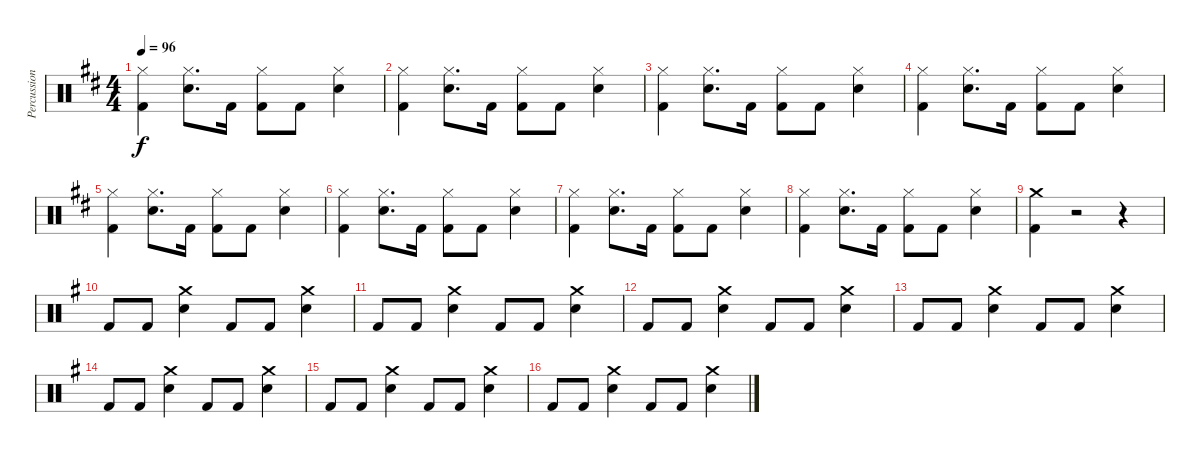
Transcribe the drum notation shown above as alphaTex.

\track ("Percussion" "Percussion") {instrument percussion}
\staff {score}
\articulation defaults
\ts (4 4)
\tempo 96
\clef neutral
\ks d
("Hi-Hat (closed)" "Kick (hit) 2").4{dy f} ("Hi-Hat (closed)" "Snare (hit) 2").8{d} "Kick (hit) 2".16 ("Hi-Hat (closed)" "Kick (hit) 2").8 "Kick (hit) 2".8 ("Hi-Hat (closed)" "Snare (hit) 2").4 |
("Hi-Hat (closed)" "Kick (hit) 2").4 ("Hi-Hat (closed)" "Snare (hit) 2").8{d} "Kick (hit) 2".16 ("Hi-Hat (closed)" "Kick (hit) 2").8 "Kick (hit) 2".8 ("Hi-Hat (closed)" "Snare (hit) 2").4 |
("Hi-Hat (closed)" "Kick (hit) 2").4 ("Hi-Hat (closed)" "Snare (hit) 2").8{d} "Kick (hit) 2".16 ("Hi-Hat (closed)" "Kick (hit) 2").8 "Kick (hit) 2".8 ("Hi-Hat (closed)" "Snare (hit) 2").4 |
("Hi-Hat (closed)" "Kick (hit) 2").4 ("Hi-Hat (closed)" "Snare (hit) 2").8{d} "Kick (hit) 2".16 ("Hi-Hat (closed)" "Kick (hit) 2").8 "Kick (hit) 2".8 ("Hi-Hat (closed)" "Snare (hit) 2").4 |
("Hi-Hat (closed)" "Kick (hit) 2").4 ("Hi-Hat (closed)" "Snare (hit) 2").8{d} "Kick (hit) 2".16 ("Hi-Hat (closed)" "Kick (hit) 2").8 "Kick (hit) 2".8 ("Hi-Hat (closed)" "Snare (hit) 2").4 |
("Hi-Hat (closed)" "Kick (hit) 2").4 ("Hi-Hat (closed)" "Snare (hit) 2").8{d} "Kick (hit) 2".16 ("Hi-Hat (closed)" "Kick (hit) 2").8 "Kick (hit) 2".8 ("Hi-Hat (closed)" "Snare (hit) 2").4 |
("Hi-Hat (closed)" "Kick (hit) 2").4 ("Hi-Hat (closed)" "Snare (hit) 2").8{d} "Kick (hit) 2".16 ("Hi-Hat (closed)" "Kick (hit) 2").8 "Kick (hit) 2".8 ("Hi-Hat (closed)" "Snare (hit) 2").4 |
("Hi-Hat (closed)" "Kick (hit) 2").4 ("Hi-Hat (closed)" "Snare (hit) 2").8{d} "Kick (hit) 2".16 ("Hi-Hat (closed)" "Kick (hit) 2").8 "Kick (hit) 2".8 ("Hi-Hat (closed)" "Snare (hit) 2").4 |
("Crash medium (hit)" "Kick (hit) 2").4 r.2 r.4 |
\ks g "Kick (hit) 2".8 "Kick (hit) 2".8
("Crash medium (hit)" "Snare (hit) 2").4 "Kick (hit) 2".8 "Kick (hit) 2".8 ("Crash medium (hit)" "Snare (hit) 2").4 |
"Kick (hit) 2".8 "Kick (hit) 2".8 ("Crash medium (hit)" "Snare (hit) 2").4 "Kick (hit) 2".8 "Kick (hit) 2".8 ("Crash medium (hit)" "Snare (hit) 2").4 |
"Kick (hit) 2".8 "Kick (hit) 2".8 ("Crash medium (hit)" "Snare (hit) 2").4 "Kick (hit) 2".8 "Kick (hit) 2".8 ("Crash medium (hit)" "Snare (hit) 2").4 |
"Kick (hit) 2".8 "Kick (hit) 2".8 ("Crash medium (hit)" "Snare (hit) 2").4 "Kick (hit) 2".8 "Kick (hit) 2".8 ("Crash medium (hit)" "Snare (hit) 2").4 |
"Kick (hit) 2".8 "Kick (hit) 2".8 ("Crash medium (hit)" "Snare (hit) 2").4 "Kick (hit) 2".8 "Kick (hit) 2".8 ("Crash medium (hit)" "Snare (hit) 2").4 |
"Kick (hit) 2".8 "Kick (hit) 2".8 ("Crash medium (hit)" "Snare (hit) 2").4 "Kick (hit) 2".8 "Kick (hit) 2".8 ("Crash medium (hit)" "Snare (hit) 2").4 |
"Kick (hit) 2".8 "Kick (hit) 2".8 ("Crash medium (hit)" "Snare (hit) 2").4 "Kick (hit) 2".8 "Kick (hit) 2".8 ("Crash medium (hit)" "Snare (hit) 2").4
